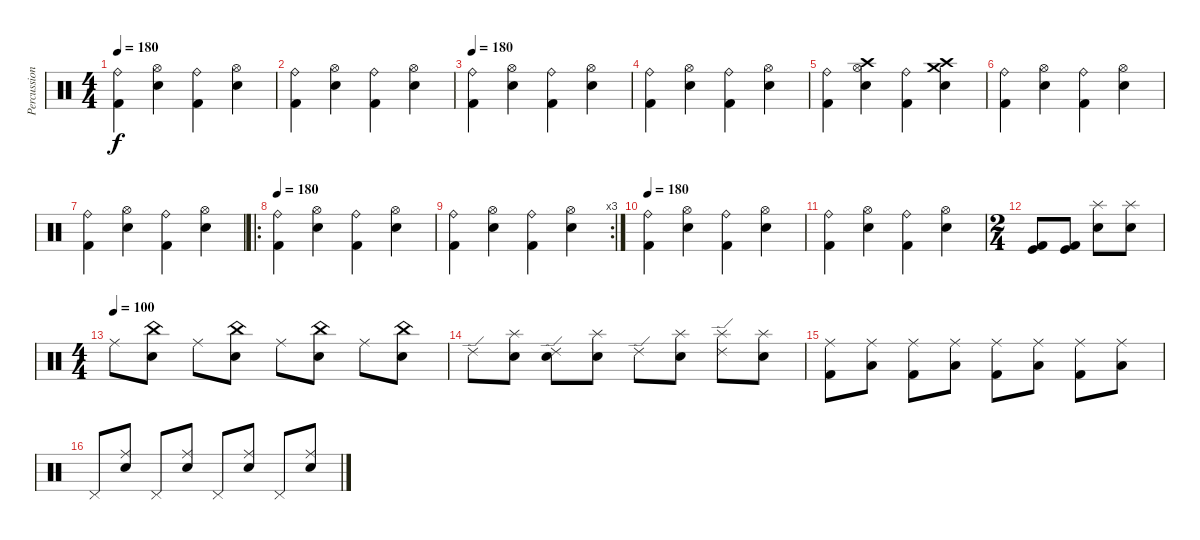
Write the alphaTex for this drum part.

\track ("Percussion" "Percussion") {instrument percussion}
\staff {score}
\articulation defaults
\ts (4 4)
\tempo 180
\clef neutral
\ks c
("Ride (bell)" "Kick (hit) 2").4{dy f} ("Hi-Hat (open)" "Snare (hit) 2").4 ("Ride (bell)" "Kick (hit) 2").4 ("Hi-Hat (open)" "Snare (hit) 2").4 |
("Ride (bell)" "Kick (hit) 2").4 ("Hi-Hat (open)" "Snare (hit) 2").4 ("Ride (bell)" "Kick (hit) 2").4 ("Hi-Hat (open)" "Snare (hit) 2").4 |
\tempo 180
("Ride (bell)" "Kick (hit) 2").4 ("Hi-Hat (open)" "Snare (hit) 2").4 ("Ride (bell)" "Kick (hit) 2").4 ("Hi-Hat (open)" "Snare (hit) 2").4 |
("Ride (bell)" "Kick (hit) 2").4 ("Hi-Hat (open)" "Snare (hit) 2").4 ("Ride (bell)" "Kick (hit) 2").4 ("Hi-Hat (open)" "Snare (hit) 2").4 |
("Ride (bell)" "Kick (hit) 2").4 ("Crash high (hit)" "Hi-Hat (open)" "Snare (hit) 2").4 ("Ride (bell)" "Kick (hit) 2").4 ("Crash high (hit)" "Crash medium (hit)" "Snare (hit) 2").4 |
("Ride (bell)" "Kick (hit) 2").4 ("Hi-Hat (open)" "Snare (hit) 2").4 ("Ride (bell)" "Kick (hit) 2").4 ("Hi-Hat (open)" "Snare (hit) 2").4 |
("Ride (bell)" "Kick (hit) 2").4 ("Hi-Hat (open)" "Snare (hit) 2").4 ("Ride (bell)" "Kick (hit) 2").4 ("Hi-Hat (open)" "Snare (hit) 2").4 |
\ro
\tempo 180
("Ride (bell)" "Kick (hit) 2").4 ("Hi-Hat (open)" "Snare (hit) 2").4 ("Ride (bell)" "Kick (hit) 2").4 ("Hi-Hat (open)" "Snare (hit) 2").4 |
\rc 3
("Ride (bell)" "Kick (hit) 2").4 ("Hi-Hat (open)" "Snare (hit) 2").4 ("Ride (bell)" "Kick (hit) 2").4 ("Hi-Hat (open)" "Snare (hit) 2").4 |
\tempo 100
\tempo 180
("Ride (bell)" "Kick (hit) 2").4 ("Hi-Hat (open)" "Snare (hit) 2").4 ("Ride (bell)" "Kick (hit) 2").4 ("Hi-Hat (open)" "Snare (hit) 2").4 |
("Ride (bell)" "Kick (hit) 2").4 ("Hi-Hat (open)" "Snare (hit) 2").4 ("Ride (bell)" "Kick (hit) 2").4 ("Hi-Hat (open)" "Snare (hit) 2").4 |
\ts (2 4)
("Kick (hit) 2" "Kick (hit)").8 ("Kick (hit) 2" "Kick (hit)").8 ("Splash (hit)" "Snare (hit) 2").8 ("Splash (hit)" "Snare (hit) 2").8 |
\ts (4 4)
\tempo (100)
"Ride (middle)".8 ("Electric Snare (hit)" "China (hit)").8 "Ride (middle)".8 ("Electric Snare (hit)" "China (hit)").8 "Ride (middle)".8 ("Electric Snare (hit)" "China (hit)").8 "Ride (middle)".8 ("Electric Snare (hit)" "China (hit)").8 |
"Ride (edge) 2".8 ("Electric Snare (hit)" "Splash (hit)").8 ("Ride (edge) 2" "Snare (hit)").8 ("Electric Snare (hit)" "Splash (hit)").8 "Ride (edge) 2".8 ("Electric Snare (hit)" "Splash (hit)").8 ("Ride (edge) 2" "Splash (hit)").8 ("Electric Snare (hit)" "Splash (hit)").8 |
("Ride (middle)" "Kick (hit) 2").8 ("Ride (middle)" "Low Floor Tom (hit)").8 ("Ride (middle)" "Kick (hit) 2").8 ("Ride (middle)" "Low Floor Tom (hit)").8 ("Ride (middle)" "Kick (hit) 2").8 ("Ride (middle)" "Low Floor Tom (hit)").8 ("Ride (middle)" "Kick (hit) 2").8 ("Ride (middle)" "Low Floor Tom (hit)").8 |
"Pedal Hi-Hat (hit)".8 ("Electric Snare (hit)" "Ride (middle)").8 "Pedal Hi-Hat (hit)".8 ("Electric Snare (hit)" "Ride (middle)").8 "Pedal Hi-Hat (hit)".8 ("Electric Snare (hit)" "Ride (middle)").8 "Pedal Hi-Hat (hit)".8 ("Electric Snare (hit)" "Ride (middle)").8
